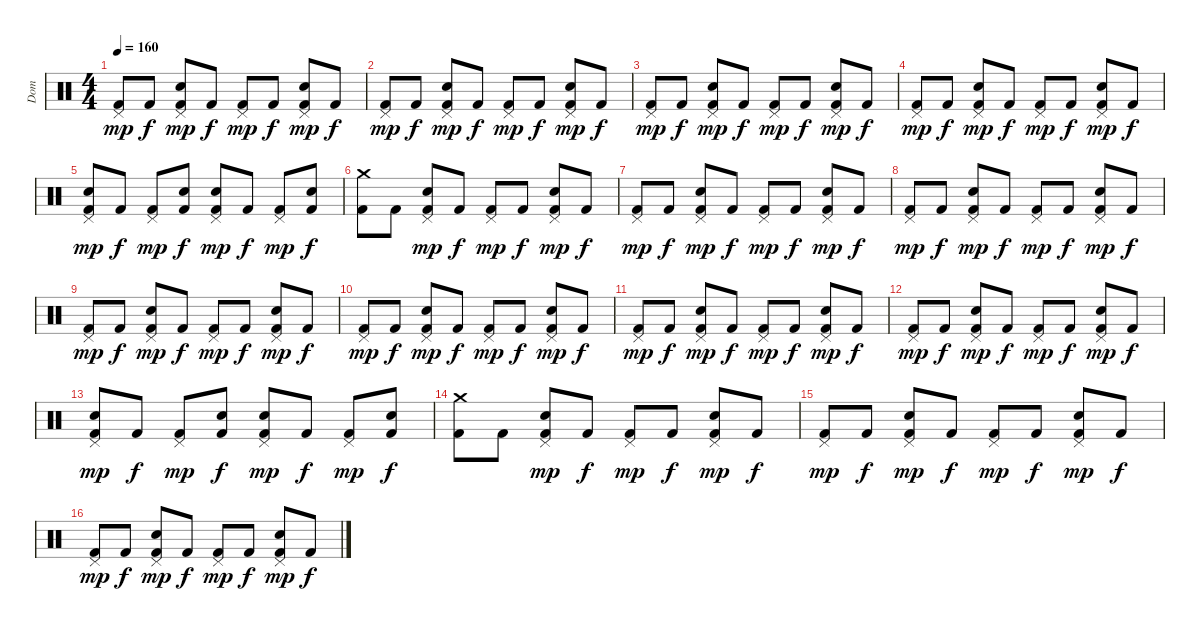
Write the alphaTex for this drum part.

\track ("Dom" "Dom") {instrument percussion}
\staff {score}
\articulation defaults
\ts (4 4)
\tempo 160
\clef neutral
\ks c
("Pedal Hi-Hat (hit)" "Kick (hit) 2").8{dy mp} "Kick (hit) 2".8{dy f} ("Pedal Hi-Hat (hit)" "Snare (hit) 2" "Kick (hit) 2").8{dy mp} "Kick (hit) 2".8{dy f} ("Pedal Hi-Hat (hit)" "Kick (hit) 2").8{dy mp} "Kick (hit) 2".8{dy f} ("Pedal Hi-Hat (hit)" "Snare (hit) 2" "Kick (hit) 2").8{dy mp} "Kick (hit) 2".8{dy f} |
("Pedal Hi-Hat (hit)" "Kick (hit) 2").8{dy mp} "Kick (hit) 2".8{dy f} ("Pedal Hi-Hat (hit)" "Snare (hit) 2" "Kick (hit) 2").8{dy mp} "Kick (hit) 2".8{dy f} ("Pedal Hi-Hat (hit)" "Kick (hit) 2").8{dy mp} "Kick (hit) 2".8{dy f} ("Pedal Hi-Hat (hit)" "Snare (hit) 2" "Kick (hit) 2").8{dy mp} "Kick (hit) 2".8{dy f} |
("Pedal Hi-Hat (hit)" "Kick (hit) 2").8{dy mp} "Kick (hit) 2".8{dy f} ("Pedal Hi-Hat (hit)" "Snare (hit) 2" "Kick (hit) 2").8{dy mp} "Kick (hit) 2".8{dy f} ("Pedal Hi-Hat (hit)" "Kick (hit) 2").8{dy mp} "Kick (hit) 2".8{dy f} ("Pedal Hi-Hat (hit)" "Snare (hit) 2" "Kick (hit) 2").8{dy mp} "Kick (hit) 2".8{dy f} |
("Pedal Hi-Hat (hit)" "Kick (hit) 2").8{dy mp} "Kick (hit) 2".8{dy f} ("Pedal Hi-Hat (hit)" "Snare (hit) 2" "Kick (hit) 2").8{dy mp} "Kick (hit) 2".8{dy f} ("Pedal Hi-Hat (hit)" "Kick (hit) 2").8{dy mp} "Kick (hit) 2".8{dy f} ("Pedal Hi-Hat (hit)" "Snare (hit) 2" "Kick (hit) 2").8{dy mp} "Kick (hit) 2".8{dy f} |
("Pedal Hi-Hat (hit)" "Snare (hit) 2" "Kick (hit) 2").8{dy mp} "Kick (hit) 2".8{dy f} ("Pedal Hi-Hat (hit)" "Kick (hit) 2").8{dy mp} ("Snare (hit) 2" "Kick (hit) 2").8{dy f} ("Pedal Hi-Hat (hit)" "Snare (hit) 2" "Kick (hit) 2").8{dy mp} "Kick (hit) 2".8{dy f} ("Pedal Hi-Hat (hit)" "Kick (hit) 2").8{dy mp} ("Snare (hit) 2" "Kick (hit) 2").8{dy f} |
("Crash medium (hit)" "Kick (hit) 2").8 "Kick (hit) 2".8 ("Pedal Hi-Hat (hit)" "Snare (hit) 2" "Kick (hit) 2").8{dy mp} "Kick (hit) 2".8{dy f} ("Pedal Hi-Hat (hit)" "Kick (hit) 2").8{dy mp} "Kick (hit) 2".8{dy f} ("Pedal Hi-Hat (hit)" "Snare (hit) 2" "Kick (hit) 2").8{dy mp} "Kick (hit) 2".8{dy f} |
("Pedal Hi-Hat (hit)" "Kick (hit) 2").8{dy mp} "Kick (hit) 2".8{dy f} ("Pedal Hi-Hat (hit)" "Snare (hit) 2" "Kick (hit) 2").8{dy mp} "Kick (hit) 2".8{dy f} ("Pedal Hi-Hat (hit)" "Kick (hit) 2").8{dy mp} "Kick (hit) 2".8{dy f} ("Pedal Hi-Hat (hit)" "Snare (hit) 2" "Kick (hit) 2").8{dy mp} "Kick (hit) 2".8{dy f} |
("Pedal Hi-Hat (hit)" "Kick (hit) 2").8{dy mp} "Kick (hit) 2".8{dy f} ("Pedal Hi-Hat (hit)" "Snare (hit) 2" "Kick (hit) 2").8{dy mp} "Kick (hit) 2".8{dy f} ("Pedal Hi-Hat (hit)" "Kick (hit) 2").8{dy mp} "Kick (hit) 2".8{dy f} ("Pedal Hi-Hat (hit)" "Snare (hit) 2" "Kick (hit) 2").8{dy mp} "Kick (hit) 2".8{dy f} |
("Pedal Hi-Hat (hit)" "Kick (hit) 2").8{dy mp} "Kick (hit) 2".8{dy f} ("Pedal Hi-Hat (hit)" "Snare (hit) 2" "Kick (hit) 2").8{dy mp} "Kick (hit) 2".8{dy f} ("Pedal Hi-Hat (hit)" "Kick (hit) 2").8{dy mp} "Kick (hit) 2".8{dy f} ("Pedal Hi-Hat (hit)" "Snare (hit) 2" "Kick (hit) 2").8{dy mp} "Kick (hit) 2".8{dy f} |
("Pedal Hi-Hat (hit)" "Kick (hit) 2").8{dy mp} "Kick (hit) 2".8{dy f} ("Pedal Hi-Hat (hit)" "Snare (hit) 2" "Kick (hit) 2").8{dy mp} "Kick (hit) 2".8{dy f} ("Pedal Hi-Hat (hit)" "Kick (hit) 2").8{dy mp} "Kick (hit) 2".8{dy f} ("Pedal Hi-Hat (hit)" "Snare (hit) 2" "Kick (hit) 2").8{dy mp} "Kick (hit) 2".8{dy f} |
("Pedal Hi-Hat (hit)" "Kick (hit) 2").8{dy mp} "Kick (hit) 2".8{dy f} ("Pedal Hi-Hat (hit)" "Snare (hit) 2" "Kick (hit) 2").8{dy mp} "Kick (hit) 2".8{dy f} ("Pedal Hi-Hat (hit)" "Kick (hit) 2").8{dy mp} "Kick (hit) 2".8{dy f} ("Pedal Hi-Hat (hit)" "Snare (hit) 2" "Kick (hit) 2").8{dy mp} "Kick (hit) 2".8{dy f} |
("Pedal Hi-Hat (hit)" "Kick (hit) 2").8{dy mp} "Kick (hit) 2".8{dy f} ("Pedal Hi-Hat (hit)" "Snare (hit) 2" "Kick (hit) 2").8{dy mp} "Kick (hit) 2".8{dy f} ("Pedal Hi-Hat (hit)" "Kick (hit) 2").8{dy mp} "Kick (hit) 2".8{dy f} ("Pedal Hi-Hat (hit)" "Snare (hit) 2" "Kick (hit) 2").8{dy mp} "Kick (hit) 2".8{dy f} |
("Pedal Hi-Hat (hit)" "Snare (hit) 2" "Kick (hit) 2").8{dy mp} "Kick (hit) 2".8{dy f} ("Pedal Hi-Hat (hit)" "Kick (hit) 2").8{dy mp} ("Snare (hit) 2" "Kick (hit) 2").8{dy f} ("Pedal Hi-Hat (hit)" "Snare (hit) 2" "Kick (hit) 2").8{dy mp} "Kick (hit) 2".8{dy f} ("Pedal Hi-Hat (hit)" "Kick (hit) 2").8{dy mp} ("Snare (hit) 2" "Kick (hit) 2").8{dy f} |
("Crash medium (hit)" "Kick (hit) 2").8 "Kick (hit) 2".8 ("Pedal Hi-Hat (hit)" "Snare (hit) 2" "Kick (hit) 2").8{dy mp} "Kick (hit) 2".8{dy f} ("Pedal Hi-Hat (hit)" "Kick (hit) 2").8{dy mp} "Kick (hit) 2".8{dy f} ("Pedal Hi-Hat (hit)" "Snare (hit) 2" "Kick (hit) 2").8{dy mp} "Kick (hit) 2".8{dy f} |
("Pedal Hi-Hat (hit)" "Kick (hit) 2").8{dy mp} "Kick (hit) 2".8{dy f} ("Pedal Hi-Hat (hit)" "Snare (hit) 2" "Kick (hit) 2").8{dy mp} "Kick (hit) 2".8{dy f} ("Pedal Hi-Hat (hit)" "Kick (hit) 2").8{dy mp} "Kick (hit) 2".8{dy f} ("Pedal Hi-Hat (hit)" "Snare (hit) 2" "Kick (hit) 2").8{dy mp} "Kick (hit) 2".8{dy f} |
("Pedal Hi-Hat (hit)" "Kick (hit) 2").8{dy mp} "Kick (hit) 2".8{dy f} ("Pedal Hi-Hat (hit)" "Snare (hit) 2" "Kick (hit) 2").8{dy mp} "Kick (hit) 2".8{dy f} ("Pedal Hi-Hat (hit)" "Kick (hit) 2").8{dy mp} "Kick (hit) 2".8{dy f} ("Pedal Hi-Hat (hit)" "Snare (hit) 2" "Kick (hit) 2").8{dy mp} "Kick (hit) 2".8{dy f}
